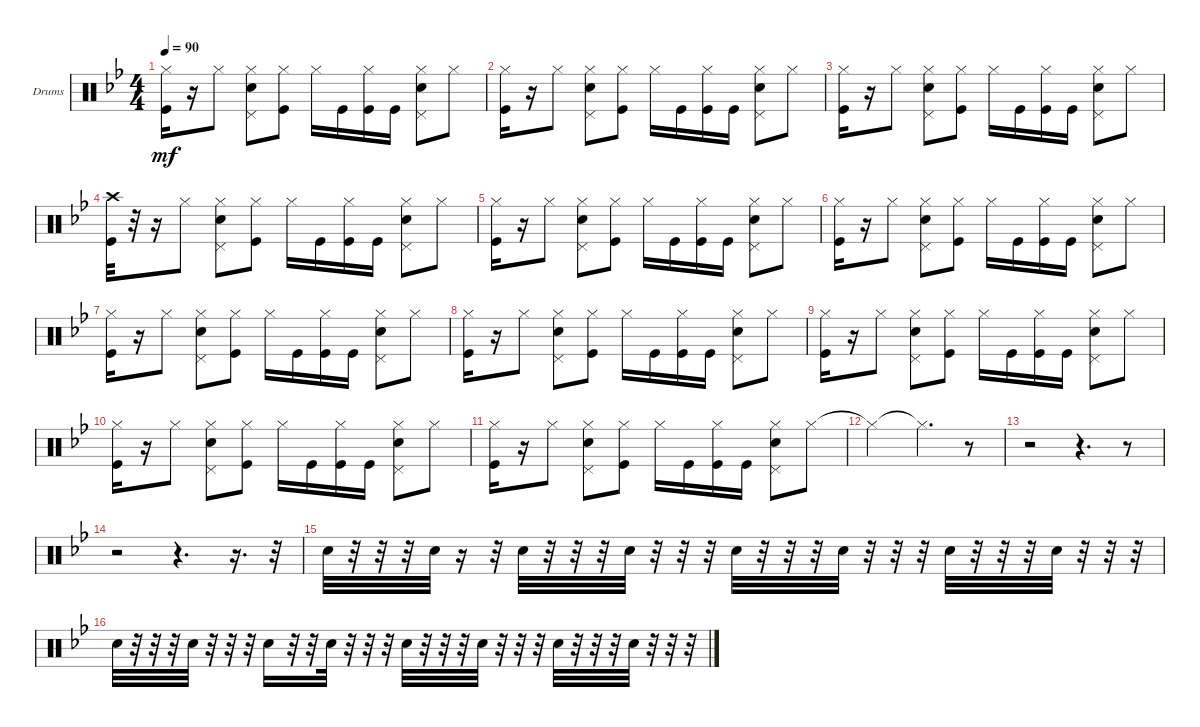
\bracketExtendMode groupsimilarinstruments
\firstSystemTrackNameOrientation horizontal
\otherSystemsTrackNameOrientation horizontal
\track ("Drumkit" "Drums") {instrument percussion}
\staff {score}
\articulation defaults
\ts (4 4)
\tempo 90
\clef neutral
\ks bb
("Hi-Hat (closed)" "Kick (hit)").16{dy mf} r.16 "Hi-Hat (closed)".8 ("Hi-Hat (closed)" "Pedal Hi-Hat (hit)" "Snare (hit) 2").8 ("Hi-Hat (closed)" "Kick (hit)").8 "Hi-Hat (closed)".16 "Kick (hit)".16 ("Hi-Hat (closed)" "Kick (hit)").16 "Kick (hit)".16 ("Hi-Hat (closed)" "Pedal Hi-Hat (hit)" "Snare (hit) 2").8 "Hi-Hat (closed)".8 |
("Kick (hit)" "Hi-Hat (closed)").16 r.16 "Hi-Hat (closed)".8 ("Snare (hit) 2" "Pedal Hi-Hat (hit)" "Hi-Hat (closed)").8 ("Kick (hit)" "Hi-Hat (closed)").8 "Hi-Hat (closed)".16 "Kick (hit)".16 ("Hi-Hat (closed)" "Kick (hit)").16 "Kick (hit)".16 ("Hi-Hat (closed)" "Snare (hit) 2" "Pedal Hi-Hat (hit)").8 "Hi-Hat (closed)".8 |
("Hi-Hat (closed)" "Kick (hit)").16 r.16 "Hi-Hat (closed)".8 ("Snare (hit) 2" "Pedal Hi-Hat (hit)" "Hi-Hat (closed)").8 ("Kick (hit)" "Hi-Hat (closed)").8 "Hi-Hat (closed)".16 "Kick (hit)".16 ("Hi-Hat (closed)" "Kick (hit)").16 "Kick (hit)".16 ("Snare (hit) 2" "Pedal Hi-Hat (hit)" "Hi-Hat (closed)").8 "Hi-Hat (closed)".8 |
("Kick (hit)" "Crash high (hit)").32 r.32 r.16 "Hi-Hat (closed)".8 ("Hi-Hat (closed)" "Snare (hit) 2" "Pedal Hi-Hat (hit)").8 ("Hi-Hat (closed)" "Kick (hit)").8 "Hi-Hat (closed)".16 "Kick (hit)".16 ("Kick (hit)" "Hi-Hat (closed)").16 "Kick (hit)".16 ("Hi-Hat (closed)" "Pedal Hi-Hat (hit)" "Snare (hit) 2").8 "Hi-Hat (closed)".8 |
("Hi-Hat (closed)" "Kick (hit)").16 r.16 "Hi-Hat (closed)".8 ("Hi-Hat (closed)" "Pedal Hi-Hat (hit)" "Snare (hit) 2").8 ("Kick (hit)" "Hi-Hat (closed)").8 "Hi-Hat (closed)".16 "Kick (hit)".16 ("Kick (hit)" "Hi-Hat (closed)").16 "Kick (hit)".16 ("Snare (hit) 2" "Pedal Hi-Hat (hit)" "Hi-Hat (closed)").8 "Hi-Hat (closed)".8 |
("Kick (hit)" "Hi-Hat (closed)").16 r.16 "Hi-Hat (closed)".8 ("Snare (hit) 2" "Pedal Hi-Hat (hit)" "Hi-Hat (closed)").8 ("Kick (hit)" "Hi-Hat (closed)").8 "Hi-Hat (closed)".16 "Kick (hit)".16 ("Hi-Hat (closed)" "Kick (hit)").16 "Kick (hit)".16 ("Snare (hit) 2" "Pedal Hi-Hat (hit)" "Hi-Hat (closed)").8 "Hi-Hat (closed)".8 |
("Kick (hit)" "Hi-Hat (closed)").16 r.16 "Hi-Hat (closed)".8 ("Pedal Hi-Hat (hit)" "Snare (hit) 2" "Hi-Hat (closed)").8 ("Kick (hit)" "Hi-Hat (closed)").8 "Hi-Hat (closed)".16 "Kick (hit)".16 ("Hi-Hat (closed)" "Kick (hit)").16 "Kick (hit)".16 ("Pedal Hi-Hat (hit)" "Hi-Hat (closed)" "Snare (hit) 2").8 "Hi-Hat (closed)".8 |
("Hi-Hat (closed)" "Kick (hit)").16 r.16 "Hi-Hat (closed)".8 ("Pedal Hi-Hat (hit)" "Snare (hit) 2" "Hi-Hat (closed)").8 ("Hi-Hat (closed)" "Kick (hit)").8 "Hi-Hat (closed)".16 "Kick (hit)".16 ("Kick (hit)" "Hi-Hat (closed)").16 "Kick (hit)".16 ("Pedal Hi-Hat (hit)" "Snare (hit) 2" "Hi-Hat (closed)").8 "Hi-Hat (closed)".8 |
("Hi-Hat (closed)" "Kick (hit)").16 r.16 "Hi-Hat (closed)".8 ("Hi-Hat (closed)" "Pedal Hi-Hat (hit)" "Snare (hit) 2").8 ("Kick (hit)" "Hi-Hat (closed)").8 "Hi-Hat (closed)".16 "Kick (hit)".16 ("Hi-Hat (closed)" "Kick (hit)").16 "Kick (hit)".16 ("Hi-Hat (closed)" "Pedal Hi-Hat (hit)" "Snare (hit) 2").8 "Hi-Hat (closed)".8 |
("Hi-Hat (closed)" "Kick (hit)").16 r.16 "Hi-Hat (closed)".8 ("Pedal Hi-Hat (hit)" "Hi-Hat (closed)" "Snare (hit) 2").8 ("Hi-Hat (closed)" "Kick (hit)").8 "Hi-Hat (closed)".16 "Kick (hit)".16 ("Kick (hit)" "Hi-Hat (closed)").16 "Kick (hit)".16 ("Hi-Hat (closed)" "Pedal Hi-Hat (hit)" "Snare (hit) 2").8 "Hi-Hat (closed)".8 |
("Hi-Hat (closed)" "Kick (hit)").16 r.16 "Hi-Hat (closed)".8 ("Hi-Hat (closed)" "Pedal Hi-Hat (hit)" "Snare (hit) 2").8 ("Kick (hit)" "Hi-Hat (closed)").8 "Hi-Hat (closed)".16 "Kick (hit)".16 ("Hi-Hat (closed)" "Kick (hit)").16 "Kick (hit)".16 ("Snare (hit) 2" "Hi-Hat (closed)" "Pedal Hi-Hat (hit)").8 "Hi-Hat (closed)".8 |
"Hi-Hat (closed)"{t}.2 "Hi-Hat (closed)"{t}.4{d} r.8 |
r.2 r.4{d} r.8 |
r.2 r.4{d} r.16{d} r.32 |
"Snare (hit) 2".32 r.32 r.32 r.32 "Snare (hit) 2".32 r.16 r.32 "Snare (hit) 2".32 r.32 r.32 r.32 "Snare (hit) 2".32 r.32 r.32 r.32 "Snare (hit) 2".32 r.32 r.32 r.32 "Snare (hit) 2".32 r.32 r.32 r.32 "Snare (hit) 2".32 r.32 r.32 r.32 "Snare (hit) 2".32 r.32 r.32 r.32 |
"Snare (hit) 2".32 r.32 r.32 r.32 "Snare (hit) 2".32 r.32 r.32 r.32 "Snare (hit) 2".16 r.32 r.32 "Snare (hit) 2".32 r.32 r.32 r.32 "Snare (hit) 2".32 r.32 r.32 r.32 "Snare (hit) 2".32 r.32 r.32 r.32 "Snare (hit) 2".32 r.32 r.32 r.32 "Snare (hit) 2".32 r.32 r.32 r.32
